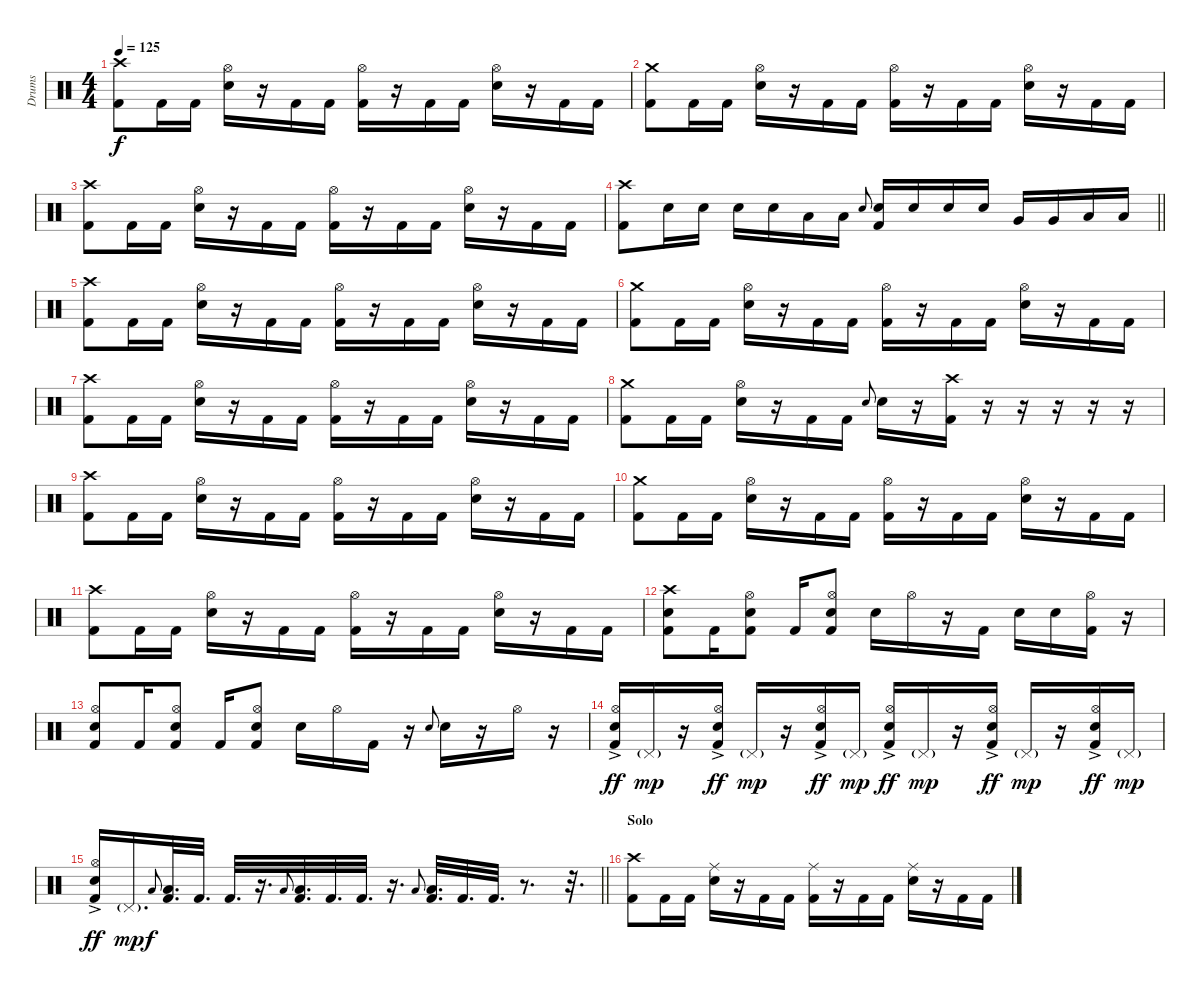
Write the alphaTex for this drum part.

\track ("Drums" "Drums") {instrument percussion}
\staff {score}
\articulation defaults
\ts (4 4)
\tempo 125
\clef neutral
\ks c
("Crash high (hit)" "Kick (hit) 2").8{dy f} "Kick (hit) 2".16 "Kick (hit) 2".16 ("Hi-Hat (open)" "Snare (hit) 2").16 r.16 "Kick (hit) 2".16 "Kick (hit) 2".16 ("Hi-Hat (open)" "Kick (hit) 2").16 r.16 "Kick (hit) 2".16 "Kick (hit) 2".16 ("Hi-Hat (open)" "Snare (hit) 2").16 r.16 "Kick (hit) 2".16 "Kick (hit) 2".16 |
("Crash medium (hit)" "Kick (hit) 2").8 "Kick (hit) 2".16 "Kick (hit) 2".16 ("Hi-Hat (open)" "Snare (hit) 2").16 r.16 "Kick (hit) 2".16 "Kick (hit) 2".16 ("Hi-Hat (open)" "Kick (hit) 2").16 r.16 "Kick (hit) 2".16 "Kick (hit) 2".16 ("Hi-Hat (open)" "Snare (hit) 2").16 r.16 "Kick (hit) 2".16 "Kick (hit) 2".16 |
("Crash high (hit)" "Kick (hit) 2").8 "Kick (hit) 2".16 "Kick (hit) 2".16 ("Hi-Hat (open)" "Snare (hit) 2").16 r.16 "Kick (hit) 2".16 "Kick (hit) 2".16 ("Hi-Hat (open)" "Kick (hit) 2").16 r.16 "Kick (hit) 2".16 "Kick (hit) 2".16 ("Hi-Hat (open)" "Snare (hit) 2").16 r.16 "Kick (hit) 2".16 "Kick (hit) 2".16 |
\barLineRight lightlight
("Crash high (hit)" "Kick (hit) 2").8 "Snare (hit) 2".16 "Snare (hit) 2".16 "Snare (hit) 2".16 "Snare (hit) 2".16 "Low Tom (hit)".16 "Low Tom (hit)".16 "Snare (hit) 2".8{gr onbeat} ("Snare (hit) 2" "Kick (hit) 2").16 "Snare (hit) 2".16 "Snare (hit) 2".16 "Snare (hit) 2".16 "Very Low Tom (hit)".16 "Very Low Tom (hit)".16 "Low Floor Tom (hit)".16 "Low Floor Tom (hit)".16 |
("Crash high (hit)" "Kick (hit) 2").8 "Kick (hit) 2".16 "Kick (hit) 2".16 ("Hi-Hat (open)" "Snare (hit) 2").16 r.16 "Kick (hit) 2".16 "Kick (hit) 2".16 ("Hi-Hat (open)" "Kick (hit) 2").16 r.16 "Kick (hit) 2".16 "Kick (hit) 2".16 ("Hi-Hat (open)" "Snare (hit) 2").16 r.16 "Kick (hit) 2".16 "Kick (hit) 2".16 |
("Crash medium (hit)" "Kick (hit) 2").8 "Kick (hit) 2".16 "Kick (hit) 2".16 ("Hi-Hat (open)" "Snare (hit) 2").16 r.16 "Kick (hit) 2".16 "Kick (hit) 2".16 ("Hi-Hat (open)" "Kick (hit) 2").16 r.16 "Kick (hit) 2".16 "Kick (hit) 2".16 ("Hi-Hat (open)" "Snare (hit) 2").16 r.16 "Kick (hit) 2".16 "Kick (hit) 2".16 |
("Crash high (hit)" "Kick (hit) 2").8 "Kick (hit) 2".16 "Kick (hit) 2".16 ("Hi-Hat (open)" "Snare (hit) 2").16 r.16 "Kick (hit) 2".16 "Kick (hit) 2".16 ("Hi-Hat (open)" "Kick (hit) 2").16 r.16 "Kick (hit) 2".16 "Kick (hit) 2".16 ("Hi-Hat (open)" "Snare (hit) 2").16 r.16 "Kick (hit) 2".16 "Kick (hit) 2".16 |
("Crash medium (hit)" "Kick (hit) 2").8 "Kick (hit) 2".16 "Kick (hit) 2".16 ("Hi-Hat (open)" "Snare (hit) 2").16 r.16 "Kick (hit) 2".16 "Kick (hit) 2".16 "Snare (hit) 2".8{gr onbeat} "Snare (hit) 2".16 r.16 ("Crash high (hit)" "Kick (hit) 2").16 r.16 r.16 r.16 r.16 r.16 |
("Crash high (hit)" "Kick (hit) 2").8 "Kick (hit) 2".16 "Kick (hit) 2".16 ("Hi-Hat (open)" "Snare (hit) 2").16 r.16 "Kick (hit) 2".16 "Kick (hit) 2".16 ("Hi-Hat (open)" "Kick (hit) 2").16 r.16 "Kick (hit) 2".16 "Kick (hit) 2".16 ("Hi-Hat (open)" "Snare (hit) 2").16 r.16 "Kick (hit) 2".16 "Kick (hit) 2".16 |
("Crash medium (hit)" "Kick (hit) 2").8 "Kick (hit) 2".16 "Kick (hit) 2".16 ("Hi-Hat (open)" "Snare (hit) 2").16 r.16 "Kick (hit) 2".16 "Kick (hit) 2".16 ("Hi-Hat (open)" "Kick (hit) 2").16 r.16 "Kick (hit) 2".16 "Kick (hit) 2".16 ("Hi-Hat (open)" "Snare (hit) 2").16 r.16 "Kick (hit) 2".16 "Kick (hit) 2".16 |
("Crash high (hit)" "Kick (hit) 2").8 "Kick (hit) 2".16 "Kick (hit) 2".16 ("Hi-Hat (open)" "Snare (hit) 2").16 r.16 "Kick (hit) 2".16 "Kick (hit) 2".16 ("Hi-Hat (open)" "Kick (hit) 2").16 r.16 "Kick (hit) 2".16 "Kick (hit) 2".16 ("Hi-Hat (open)" "Snare (hit) 2").16 r.16 "Kick (hit) 2".16 "Kick (hit) 2".16 |
("Crash high (hit)" "Snare (hit) 2" "Kick (hit) 2").8 "Kick (hit) 2".16 ("Hi-Hat (open)" "Snare (hit) 2" "Kick (hit) 2").8 "Kick (hit) 2".16 ("Hi-Hat (open)" "Snare (hit) 2" "Kick (hit) 2").8 "Snare (hit) 2".16 "Hi-Hat (open)".16 r.16 "Kick (hit) 2".16 "Snare (hit) 2".16 "Snare (hit) 2".16 ("Hi-Hat (open)" "Kick (hit) 2").16 r.16 |
("Hi-Hat (open)" "Snare (hit) 2" "Kick (hit) 2").8 "Kick (hit) 2".16 ("Hi-Hat (open)" "Snare (hit) 2" "Kick (hit) 2").8 "Kick (hit) 2".16 ("Hi-Hat (open)" "Snare (hit) 2" "Kick (hit) 2").8 "Snare (hit) 2".16 "Hi-Hat (open)".16 "Kick (hit) 2".16 r.16 "Snare (hit) 2".8{gr onbeat} "Snare (hit) 2".16 r.16 "Hi-Hat (open)".16 r.16 |
("Hi-Hat (open)"{ac} "Snare (hit) 2" "Kick (hit) 2").16{dy ff} "Pedal Hi-Hat (hit)"{g}.16{dy mp} r.16 ("Hi-Hat (open)"{ac} "Snare (hit) 2" "Kick (hit) 2").16{dy ff} "Pedal Hi-Hat (hit)"{g}.16{dy mp} r.16 ("Hi-Hat (open)"{ac} "Snare (hit) 2" "Kick (hit) 2").16{dy ff} "Pedal Hi-Hat (hit)"{g}.16{dy mp} ("Hi-Hat (open)"{ac} "Snare (hit) 2" "Kick (hit) 2").16{dy ff} "Pedal Hi-Hat (hit)"{g}.16{dy mp} r.16 ("Hi-Hat (open)"{ac} "Snare (hit) 2" "Kick (hit) 2").16{dy ff} "Pedal Hi-Hat (hit)"{g}.16{dy mp} r.16 ("Hi-Hat (open)"{ac} "Snare (hit) 2" "Kick (hit) 2").16{dy ff} "Pedal Hi-Hat (hit)"{g}.16{dy mp} |
\barLineRight lightlight
("Hi-Hat (open)"{ac} "Snare (hit) 2" "Kick (hit) 2").16{dy ff} "Pedal Hi-Hat (hit)"{g}.16{d dy mp} "Low Floor Tom (hit)".8{gr onbeat dy f} ("Low Floor Tom (hit)" "Kick (hit) 2").32{d} "Kick (hit) 2".32{d} "Kick (hit) 2".32{d} r.16{d} "Low Floor Tom (hit)".8{gr onbeat} ("Low Floor Tom (hit)" "Kick (hit) 2").32{d} "Kick (hit) 2".32{d} "Kick (hit) 2".32{d} r.16{d} "Low Floor Tom (hit)".8{gr onbeat} ("Low Floor Tom (hit)" "Kick (hit) 2").32{d} "Kick (hit) 2".32{d} "Kick (hit) 2".32{d} r.8{d} r.32{d} |
\section ("" "Solo")
("Crash high (hit)" "Kick (hit) 2").8 "Kick (hit) 2".16 "Kick (hit) 2".16 ("Ride (middle)" "Snare (hit) 2").16 r.16 "Kick (hit) 2".16 "Kick (hit) 2".16 ("Ride (middle)" "Kick (hit) 2").16 r.16 "Kick (hit) 2".16 "Kick (hit) 2".16 ("Ride (middle)" "Snare (hit) 2").16 r.16 "Kick (hit) 2".16 "Kick (hit) 2".16
